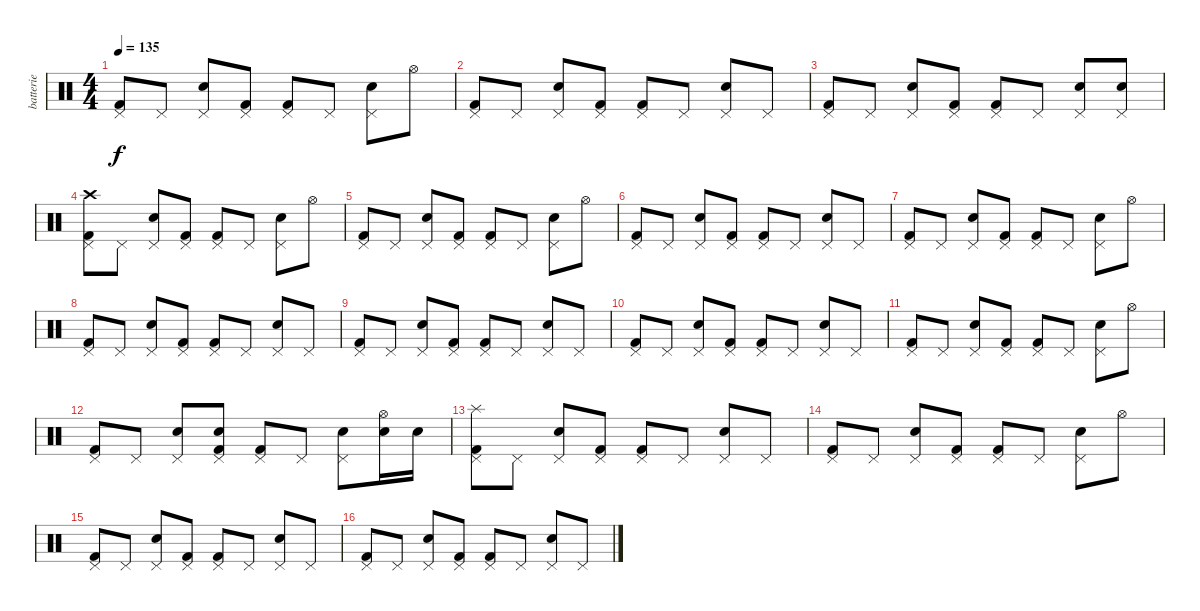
\track ("batterie" "batterie") {instrument percussion}
\staff {score}
\articulation defaults
\ts (4 4)
\tempo 135
\clef neutral
\ks c
("Pedal Hi-Hat (hit)" "Kick (hit) 2").8{dy f} "Pedal Hi-Hat (hit)".8 ("Pedal Hi-Hat (hit)" "Snare (hit) 2").8 ("Pedal Hi-Hat (hit)" "Kick (hit) 2").8 ("Pedal Hi-Hat (hit)" "Kick (hit) 2").8 "Pedal Hi-Hat (hit)".8 ("Pedal Hi-Hat (hit)" "Snare (hit) 2").8 "Hi-Hat (open)".8 |
("Pedal Hi-Hat (hit)" "Kick (hit) 2").8 "Pedal Hi-Hat (hit)".8 ("Pedal Hi-Hat (hit)" "Snare (hit) 2").8 ("Pedal Hi-Hat (hit)" "Kick (hit) 2").8 ("Pedal Hi-Hat (hit)" "Kick (hit) 2").8 "Pedal Hi-Hat (hit)".8 ("Pedal Hi-Hat (hit)" "Snare (hit) 2").8 "Pedal Hi-Hat (hit)".8 |
("Pedal Hi-Hat (hit)" "Kick (hit) 2").8 "Pedal Hi-Hat (hit)".8 ("Pedal Hi-Hat (hit)" "Snare (hit) 2").8 ("Pedal Hi-Hat (hit)" "Kick (hit) 2").8 ("Pedal Hi-Hat (hit)" "Kick (hit) 2").8 "Pedal Hi-Hat (hit)".8 ("Pedal Hi-Hat (hit)" "Snare (hit) 2").8 ("Pedal Hi-Hat (hit)" "Snare (hit) 2").8 |
("Crash high (hit)" "Pedal Hi-Hat (hit)" "Kick (hit) 2").8 "Pedal Hi-Hat (hit)".8 ("Pedal Hi-Hat (hit)" "Snare (hit) 2").8 ("Pedal Hi-Hat (hit)" "Kick (hit) 2").8 ("Pedal Hi-Hat (hit)" "Kick (hit) 2").8 "Pedal Hi-Hat (hit)".8 ("Pedal Hi-Hat (hit)" "Snare (hit) 2").8 "Hi-Hat (open)".8 |
("Pedal Hi-Hat (hit)" "Kick (hit) 2").8 "Pedal Hi-Hat (hit)".8 ("Pedal Hi-Hat (hit)" "Snare (hit) 2").8 ("Pedal Hi-Hat (hit)" "Kick (hit) 2").8 ("Pedal Hi-Hat (hit)" "Kick (hit) 2").8 "Pedal Hi-Hat (hit)".8 ("Pedal Hi-Hat (hit)" "Snare (hit) 2").8 "Hi-Hat (open)".8 |
("Pedal Hi-Hat (hit)" "Kick (hit) 2").8 "Pedal Hi-Hat (hit)".8 ("Pedal Hi-Hat (hit)" "Snare (hit) 2").8 ("Pedal Hi-Hat (hit)" "Kick (hit) 2").8 ("Pedal Hi-Hat (hit)" "Kick (hit) 2").8 "Pedal Hi-Hat (hit)".8 ("Pedal Hi-Hat (hit)" "Snare (hit) 2").8 "Pedal Hi-Hat (hit)".8 |
("Pedal Hi-Hat (hit)" "Kick (hit) 2").8 "Pedal Hi-Hat (hit)".8 ("Pedal Hi-Hat (hit)" "Snare (hit) 2").8 ("Pedal Hi-Hat (hit)" "Kick (hit) 2").8 ("Pedal Hi-Hat (hit)" "Kick (hit) 2").8 "Pedal Hi-Hat (hit)".8 ("Pedal Hi-Hat (hit)" "Snare (hit) 2").8 "Hi-Hat (open)".8 |
("Pedal Hi-Hat (hit)" "Kick (hit) 2").8 "Pedal Hi-Hat (hit)".8 ("Pedal Hi-Hat (hit)" "Snare (hit) 2").8 ("Pedal Hi-Hat (hit)" "Kick (hit) 2").8 ("Pedal Hi-Hat (hit)" "Kick (hit) 2").8 "Pedal Hi-Hat (hit)".8 ("Pedal Hi-Hat (hit)" "Snare (hit) 2").8 "Pedal Hi-Hat (hit)".8 |
("Pedal Hi-Hat (hit)" "Kick (hit) 2").8 "Pedal Hi-Hat (hit)".8 ("Pedal Hi-Hat (hit)" "Snare (hit) 2").8 ("Pedal Hi-Hat (hit)" "Kick (hit) 2").8 ("Pedal Hi-Hat (hit)" "Kick (hit) 2").8 "Pedal Hi-Hat (hit)".8 ("Pedal Hi-Hat (hit)" "Snare (hit) 2").8 "Pedal Hi-Hat (hit)".8 |
("Pedal Hi-Hat (hit)" "Kick (hit) 2").8 "Pedal Hi-Hat (hit)".8 ("Pedal Hi-Hat (hit)" "Snare (hit) 2").8 ("Pedal Hi-Hat (hit)" "Kick (hit) 2").8 ("Pedal Hi-Hat (hit)" "Kick (hit) 2").8 "Pedal Hi-Hat (hit)".8 ("Pedal Hi-Hat (hit)" "Snare (hit) 2").8 "Pedal Hi-Hat (hit)".8 |
("Pedal Hi-Hat (hit)" "Kick (hit) 2").8 "Pedal Hi-Hat (hit)".8 ("Pedal Hi-Hat (hit)" "Snare (hit) 2").8 ("Pedal Hi-Hat (hit)" "Kick (hit) 2").8 ("Pedal Hi-Hat (hit)" "Kick (hit) 2").8 "Pedal Hi-Hat (hit)".8 ("Pedal Hi-Hat (hit)" "Snare (hit) 2").8 "Hi-Hat (open)".8 |
("Pedal Hi-Hat (hit)" "Kick (hit) 2").8 "Pedal Hi-Hat (hit)".8 ("Pedal Hi-Hat (hit)" "Snare (hit) 2").8 ("Pedal Hi-Hat (hit)" "Snare (hit) 2" "Kick (hit) 2").8 ("Pedal Hi-Hat (hit)" "Kick (hit) 2").8 "Pedal Hi-Hat (hit)".8 ("Pedal Hi-Hat (hit)" "Snare (hit) 2").8 ("Hi-Hat (open)" "Snare (hit) 2").16 "Snare (hit) 2".16 |
("Splash (hit)" "Pedal Hi-Hat (hit)" "Kick (hit) 2").8 "Pedal Hi-Hat (hit)".8 ("Pedal Hi-Hat (hit)" "Snare (hit) 2").8 ("Pedal Hi-Hat (hit)" "Kick (hit) 2").8 ("Pedal Hi-Hat (hit)" "Kick (hit) 2").8 "Pedal Hi-Hat (hit)".8 ("Pedal Hi-Hat (hit)" "Snare (hit) 2").8 "Pedal Hi-Hat (hit)".8 |
("Pedal Hi-Hat (hit)" "Kick (hit) 2").8 "Pedal Hi-Hat (hit)".8 ("Pedal Hi-Hat (hit)" "Snare (hit) 2").8 ("Pedal Hi-Hat (hit)" "Kick (hit) 2").8 ("Pedal Hi-Hat (hit)" "Kick (hit) 2").8 "Pedal Hi-Hat (hit)".8 ("Pedal Hi-Hat (hit)" "Snare (hit) 2").8 "Hi-Hat (open)".8 |
("Pedal Hi-Hat (hit)" "Kick (hit) 2").8 "Pedal Hi-Hat (hit)".8 ("Pedal Hi-Hat (hit)" "Snare (hit) 2").8 ("Pedal Hi-Hat (hit)" "Kick (hit) 2").8 ("Pedal Hi-Hat (hit)" "Kick (hit) 2").8 "Pedal Hi-Hat (hit)".8 ("Pedal Hi-Hat (hit)" "Snare (hit) 2").8 "Pedal Hi-Hat (hit)".8 |
("Pedal Hi-Hat (hit)" "Kick (hit) 2").8 "Pedal Hi-Hat (hit)".8 ("Pedal Hi-Hat (hit)" "Snare (hit) 2").8 ("Pedal Hi-Hat (hit)" "Kick (hit) 2").8 ("Pedal Hi-Hat (hit)" "Kick (hit) 2").8 "Pedal Hi-Hat (hit)".8 ("Pedal Hi-Hat (hit)" "Snare (hit) 2").8 "Pedal Hi-Hat (hit)".8
